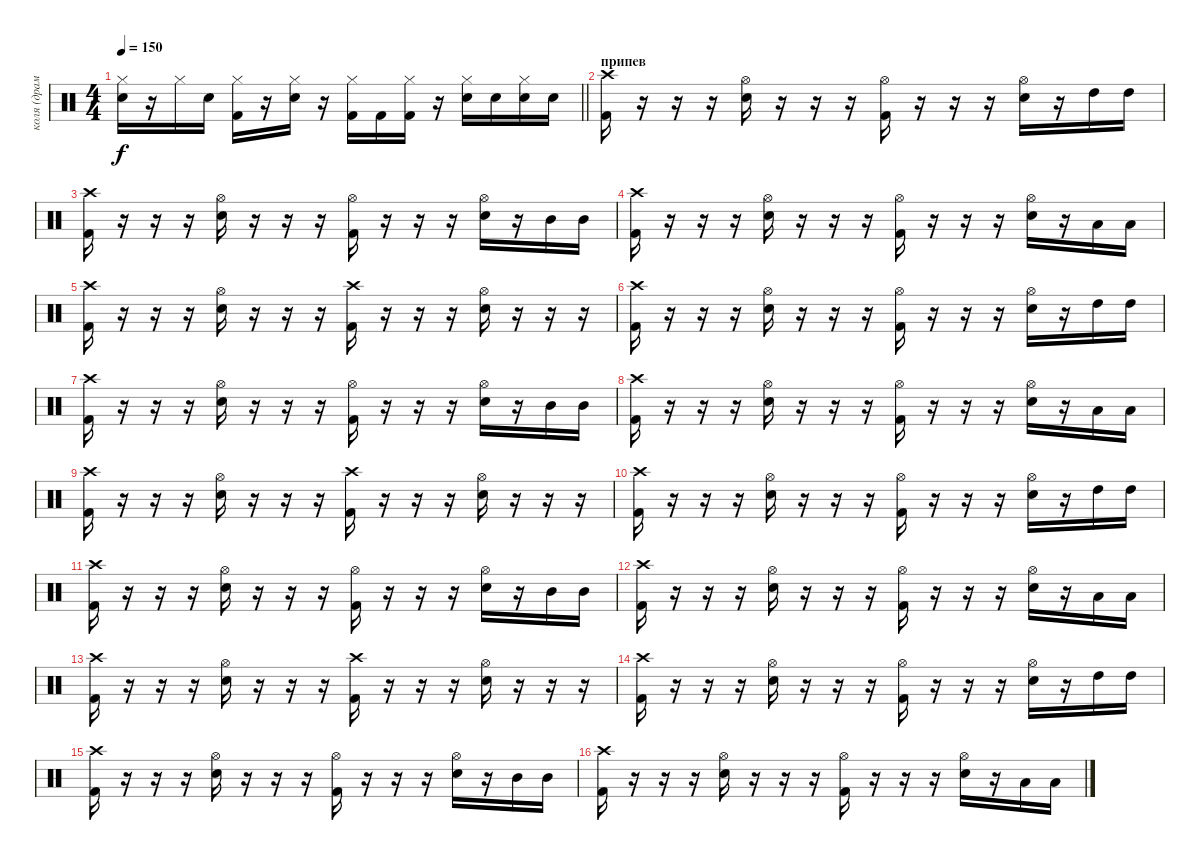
\track ("коля (драммы)" "коля (драм") {instrument percussion}
\staff {score}
\articulation defaults
\ts (4 4)
\tempo 150
\clef neutral
\barLineRight lightlight
\ks c
("Snare (hit) 2" "Hi-Hat (closed)").16{dy f} r.16 "Hi-Hat (closed)".16 "Snare (hit) 2".16 ("Kick (hit) 2" "Hi-Hat (closed)").16 r.16 ("Snare (hit) 2" "Hi-Hat (closed)").16 r.16 ("Kick (hit) 2" "Hi-Hat (closed)").16 "Kick (hit) 2".16 ("Kick (hit) 2" "Hi-Hat (closed)").16 r.16 ("Snare (hit) 2" "Hi-Hat (closed)").16 "Snare (hit) 2".16 ("Snare (hit) 2" "Hi-Hat (closed)").16 "Snare (hit) 2".16 |
\section ("" "припев")
("Kick (hit) 2" "Crash high (hit)").16 r.16 r.16 r.16 ("Snare (hit) 2" "Hi-Hat (open)").16 r.16 r.16 r.16 ("Kick (hit) 2" "Hi-Hat (open)").16 r.16 r.16 r.16 ("Snare (hit) 2" "Hi-Hat (open)").16 r.16 "High Tom (hit)".16 "High Tom (hit)".16 |
("Kick (hit) 2" "Crash high (hit)").16 r.16 r.16 r.16 ("Snare (hit) 2" "Hi-Hat (open)").16 r.16 r.16 r.16 ("Kick (hit) 2" "Hi-Hat (open)").16 r.16 r.16 r.16 ("Snare (hit) 2" "Hi-Hat (open)").16 r.16 "Mid Tom (hit)".16 "Mid Tom (hit)".16 |
("Kick (hit) 2" "Crash high (hit)").16 r.16 r.16 r.16 ("Snare (hit) 2" "Hi-Hat (open)").16 r.16 r.16 r.16 ("Kick (hit) 2" "Hi-Hat (open)").16 r.16 r.16 r.16 ("Snare (hit) 2" "Hi-Hat (open)").16 r.16 "Low Tom (hit)".16 "Low Tom (hit)".16 |
("Kick (hit) 2" "Crash high (hit)").16 r.16 r.16 r.16 ("Snare (hit) 2" "Hi-Hat (open)").16 r.16 r.16 r.16 ("Kick (hit) 2" "Crash high (hit)").16 r.16 r.16 r.16 ("Snare (hit) 2" "Hi-Hat (open)").16 r.16 r.16 r.16 |
("Kick (hit) 2" "Crash high (hit)").16 r.16 r.16 r.16 ("Snare (hit) 2" "Hi-Hat (open)").16 r.16 r.16 r.16 ("Kick (hit) 2" "Hi-Hat (open)").16 r.16 r.16 r.16 ("Snare (hit) 2" "Hi-Hat (open)").16 r.16 "High Tom (hit)".16 "High Tom (hit)".16 |
("Kick (hit) 2" "Crash high (hit)").16 r.16 r.16 r.16 ("Snare (hit) 2" "Hi-Hat (open)").16 r.16 r.16 r.16 ("Kick (hit) 2" "Hi-Hat (open)").16 r.16 r.16 r.16 ("Snare (hit) 2" "Hi-Hat (open)").16 r.16 "Mid Tom (hit)".16 "Mid Tom (hit)".16 |
("Kick (hit) 2" "Crash high (hit)").16 r.16 r.16 r.16 ("Snare (hit) 2" "Hi-Hat (open)").16 r.16 r.16 r.16 ("Kick (hit) 2" "Hi-Hat (open)").16 r.16 r.16 r.16 ("Snare (hit) 2" "Hi-Hat (open)").16 r.16 "Low Tom (hit)".16 "Low Tom (hit)".16 |
("Kick (hit) 2" "Crash high (hit)").16 r.16 r.16 r.16 ("Snare (hit) 2" "Hi-Hat (open)").16 r.16 r.16 r.16 ("Kick (hit) 2" "Crash high (hit)").16 r.16 r.16 r.16 ("Snare (hit) 2" "Hi-Hat (open)").16 r.16 r.16 r.16 |
("Kick (hit) 2" "Crash high (hit)").16 r.16 r.16 r.16 ("Snare (hit) 2" "Hi-Hat (open)").16 r.16 r.16 r.16 ("Kick (hit) 2" "Hi-Hat (open)").16 r.16 r.16 r.16 ("Snare (hit) 2" "Hi-Hat (open)").16 r.16 "High Tom (hit)".16 "High Tom (hit)".16 |
("Kick (hit) 2" "Crash high (hit)").16 r.16 r.16 r.16 ("Snare (hit) 2" "Hi-Hat (open)").16 r.16 r.16 r.16 ("Kick (hit) 2" "Hi-Hat (open)").16 r.16 r.16 r.16 ("Snare (hit) 2" "Hi-Hat (open)").16 r.16 "Mid Tom (hit)".16 "Mid Tom (hit)".16 |
("Kick (hit) 2" "Crash high (hit)").16 r.16 r.16 r.16 ("Snare (hit) 2" "Hi-Hat (open)").16 r.16 r.16 r.16 ("Kick (hit) 2" "Hi-Hat (open)").16 r.16 r.16 r.16 ("Snare (hit) 2" "Hi-Hat (open)").16 r.16 "Low Tom (hit)".16 "Low Tom (hit)".16 |
("Kick (hit) 2" "Crash high (hit)").16 r.16 r.16 r.16 ("Snare (hit) 2" "Hi-Hat (open)").16 r.16 r.16 r.16 ("Kick (hit) 2" "Crash high (hit)").16 r.16 r.16 r.16 ("Snare (hit) 2" "Hi-Hat (open)").16 r.16 r.16 r.16 |
("Kick (hit) 2" "Crash high (hit)").16 r.16 r.16 r.16 ("Snare (hit) 2" "Hi-Hat (open)").16 r.16 r.16 r.16 ("Kick (hit) 2" "Hi-Hat (open)").16 r.16 r.16 r.16 ("Snare (hit) 2" "Hi-Hat (open)").16 r.16 "High Tom (hit)".16 "High Tom (hit)".16 |
("Kick (hit) 2" "Crash high (hit)").16 r.16 r.16 r.16 ("Snare (hit) 2" "Hi-Hat (open)").16 r.16 r.16 r.16 ("Kick (hit) 2" "Hi-Hat (open)").16 r.16 r.16 r.16 ("Snare (hit) 2" "Hi-Hat (open)").16 r.16 "Mid Tom (hit)".16 "Mid Tom (hit)".16 |
("Kick (hit) 2" "Crash high (hit)").16 r.16 r.16 r.16 ("Snare (hit) 2" "Hi-Hat (open)").16 r.16 r.16 r.16 ("Kick (hit) 2" "Hi-Hat (open)").16 r.16 r.16 r.16 ("Snare (hit) 2" "Hi-Hat (open)").16 r.16 "Low Tom (hit)".16 "Low Tom (hit)".16
